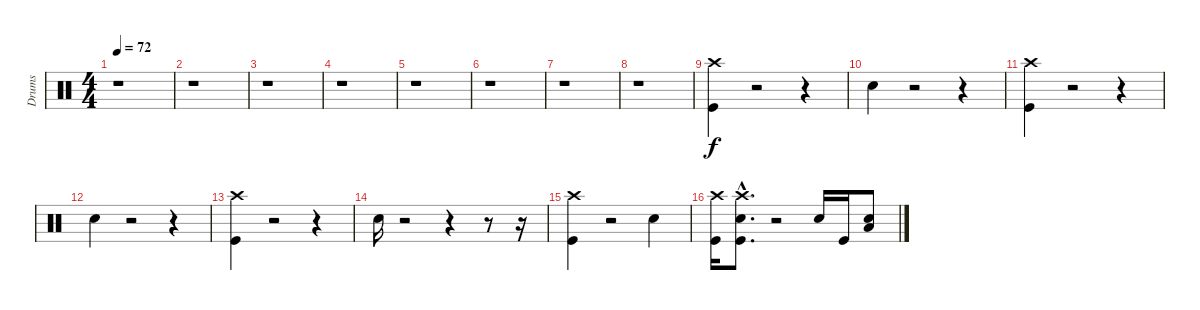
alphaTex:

\track ("Drums" "Drums") {instrument percussion}
\staff {score}
\articulation defaults
\ts (4 4)
\tempo 72
\clef neutral
\ks c
r.1{dy f} |
r.1 |
r.1 |
r.1 |
r.1 |
r.1 |
r.1 |
r.1 |
("Kick (hit)" "Crash high (hit)").4 r.2 r.4 |
"Snare (hit) 2".4 r.2 r.4 |
("Kick (hit)" "Crash high (hit)").4 r.2 r.4 |
"Snare (hit) 2".4 r.2 r.4 |
("Kick (hit)" "Crash high (hit)").4 r.2 r.4 |
"Snare (hit) 2".16 r.2 r.4 r.8 r.16 |
("Kick (hit)" "Crash high (hit)").4 r.2 "Snare (hit) 2".4 |
("Kick (hit)" "Crash high (hit)").16 ("Snare (hit)"{hac} "Kick (hit)"{hac} "Crash high (hit)"{hac}).8{d} r.2 "Snare (hit) 2".16 "Kick (hit)".16 ("Snare (hit)" "Low Tom (hit)").8
